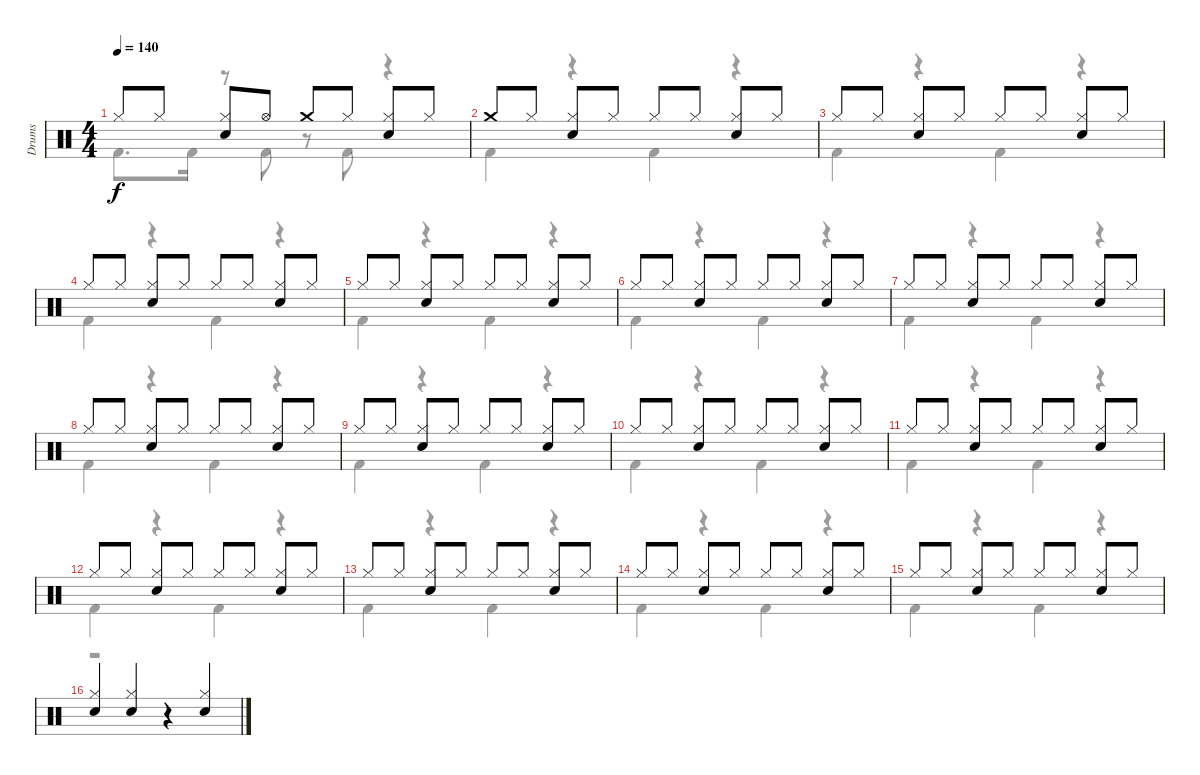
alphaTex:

\track ("Drums" "Drums") {instrument percussion}
\staff {score}
\articulation defaults
\voice
\ts (4 4)
\tempo 140
\clef neutral
\ks c "Hi-Hat (closed)".8{dy f} "Hi-Hat (closed)".8
("Hi-Hat (closed)" "Snare (hit) 2").8 "Hi-Hat (open)".8 "Crash medium (hit)".8 "Hi-Hat (closed)".8 ("Hi-Hat (closed)" "Snare (hit) 2").8 "Hi-Hat (closed)".8 |
"Crash medium (hit)".8 "Hi-Hat (closed)".8 ("Hi-Hat (closed)" "Snare (hit) 2").8 "Hi-Hat (closed)".8 "Hi-Hat (closed)".8 "Hi-Hat (closed)".8 ("Hi-Hat (closed)" "Snare (hit) 2").8 "Hi-Hat (closed)".8 |
"Hi-Hat (closed)".8 "Hi-Hat (closed)".8 ("Hi-Hat (closed)" "Snare (hit) 2").8 "Hi-Hat (closed)".8 "Hi-Hat (closed)".8 "Hi-Hat (closed)".8 ("Hi-Hat (closed)" "Snare (hit) 2").8 "Hi-Hat (closed)".8 |
"Hi-Hat (closed)".8 "Hi-Hat (closed)".8 ("Hi-Hat (closed)" "Snare (hit) 2").8 "Hi-Hat (closed)".8 "Hi-Hat (closed)".8 "Hi-Hat (closed)".8 ("Hi-Hat (closed)" "Snare (hit) 2").8 "Hi-Hat (closed)".8 |
"Hi-Hat (closed)".8 "Hi-Hat (closed)".8 ("Hi-Hat (closed)" "Snare (hit) 2").8 "Hi-Hat (closed)".8 "Hi-Hat (closed)".8 "Hi-Hat (closed)".8 ("Hi-Hat (closed)" "Snare (hit) 2").8 "Hi-Hat (closed)".8 |
"Hi-Hat (closed)".8 "Hi-Hat (closed)".8 ("Hi-Hat (closed)" "Snare (hit) 2").8 "Hi-Hat (closed)".8 "Hi-Hat (closed)".8 "Hi-Hat (closed)".8 ("Hi-Hat (closed)" "Snare (hit) 2").8 "Hi-Hat (closed)".8 |
"Hi-Hat (closed)".8 "Hi-Hat (closed)".8 ("Hi-Hat (closed)" "Snare (hit) 2").8 "Hi-Hat (closed)".8 "Hi-Hat (closed)".8 "Hi-Hat (closed)".8 ("Hi-Hat (closed)" "Snare (hit) 2").8 "Hi-Hat (closed)".8 |
"Hi-Hat (closed)".8 "Hi-Hat (closed)".8 ("Hi-Hat (closed)" "Snare (hit) 2").8 "Hi-Hat (closed)".8 "Hi-Hat (closed)".8 "Hi-Hat (closed)".8 ("Hi-Hat (closed)" "Snare (hit) 2").8 "Hi-Hat (closed)".8 |
"Hi-Hat (closed)".8 "Hi-Hat (closed)".8 ("Hi-Hat (closed)" "Snare (hit) 2").8 "Hi-Hat (closed)".8 "Hi-Hat (closed)".8 "Hi-Hat (closed)".8 ("Hi-Hat (closed)" "Snare (hit) 2").8 "Hi-Hat (closed)".8 |
"Hi-Hat (closed)".8 "Hi-Hat (closed)".8 ("Hi-Hat (closed)" "Snare (hit) 2").8 "Hi-Hat (closed)".8 "Hi-Hat (closed)".8 "Hi-Hat (closed)".8 ("Hi-Hat (closed)" "Snare (hit) 2").8 "Hi-Hat (closed)".8 |
"Hi-Hat (closed)".8 "Hi-Hat (closed)".8 ("Hi-Hat (closed)" "Snare (hit) 2").8 "Hi-Hat (closed)".8 "Hi-Hat (closed)".8 "Hi-Hat (closed)".8 ("Hi-Hat (closed)" "Snare (hit) 2").8 "Hi-Hat (closed)".8 |
"Hi-Hat (closed)".8 "Hi-Hat (closed)".8 ("Hi-Hat (closed)" "Snare (hit) 2").8 "Hi-Hat (closed)".8 "Hi-Hat (closed)".8 "Hi-Hat (closed)".8 ("Hi-Hat (closed)" "Snare (hit) 2").8 "Hi-Hat (closed)".8 |
"Hi-Hat (closed)".8 "Hi-Hat (closed)".8 ("Hi-Hat (closed)" "Snare (hit) 2").8 "Hi-Hat (closed)".8 "Hi-Hat (closed)".8 "Hi-Hat (closed)".8 ("Hi-Hat (closed)" "Snare (hit) 2").8 "Hi-Hat (closed)".8 |
"Hi-Hat (closed)".8 "Hi-Hat (closed)".8 ("Hi-Hat (closed)" "Snare (hit) 2").8 "Hi-Hat (closed)".8 "Hi-Hat (closed)".8 "Hi-Hat (closed)".8 ("Hi-Hat (closed)" "Snare (hit) 2").8 "Hi-Hat (closed)".8 |
"Hi-Hat (closed)".8 "Hi-Hat (closed)".8 ("Hi-Hat (closed)" "Snare (hit) 2").8 "Hi-Hat (closed)".8 "Hi-Hat (closed)".8 "Hi-Hat (closed)".8 ("Hi-Hat (closed)" "Snare (hit) 2").8 "Hi-Hat (closed)".8 |
("Hi-Hat (closed)" "Snare (hit) 2").4 ("Hi-Hat (closed)" "Snare (hit) 2").4 r.4 ("Hi-Hat (closed)" "Snare (hit) 2").4
\voice
\clef neutral
\ottava regular
\simile none
\ks c "Kick (hit) 2".8{d dy f} "Kick (hit) 2".16
r.8 "Kick (hit) 2".8 r.8 "Kick (hit) 2".8 r.4 |
"Kick (hit) 2".4 r.4 "Kick (hit) 2".4 r.4 |
"Kick (hit) 2".4 r.4 "Kick (hit) 2".4 r.4 |
"Kick (hit) 2".4 r.4 "Kick (hit) 2".4 r.4 |
"Kick (hit) 2".4 r.4 "Kick (hit) 2".4 r.4 |
"Kick (hit) 2".4 r.4 "Kick (hit) 2".4 r.4 |
"Kick (hit) 2".4 r.4 "Kick (hit) 2".4 r.4 |
"Kick (hit) 2".4 r.4 "Kick (hit) 2".4 r.4 |
"Kick (hit) 2".4 r.4 "Kick (hit) 2".4 r.4 |
"Kick (hit) 2".4 r.4 "Kick (hit) 2".4 r.4 |
"Kick (hit) 2".4 r.4 "Kick (hit) 2".4 r.4 |
"Kick (hit) 2".4 r.4 "Kick (hit) 2".4 r.4 |
"Kick (hit) 2".4 r.4 "Kick (hit) 2".4 r.4 |
"Kick (hit) 2".4 r.4 "Kick (hit) 2".4 r.4 |
"Kick (hit) 2".4 r.4 "Kick (hit) 2".4 r.4 |
r.1
